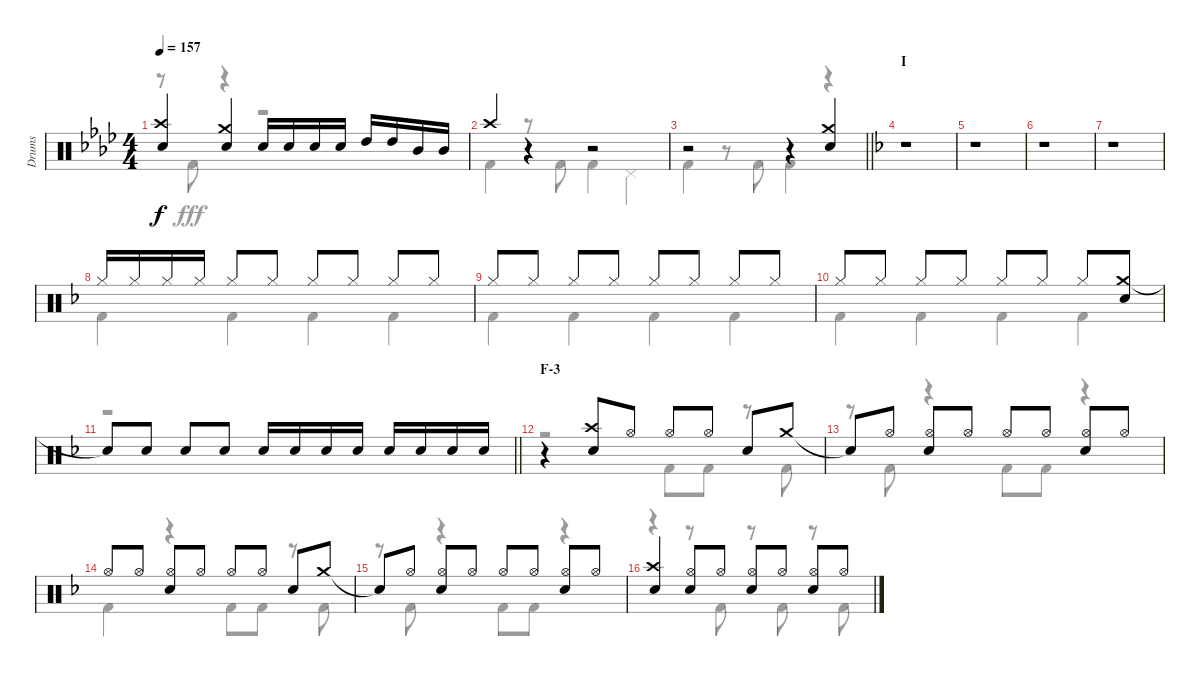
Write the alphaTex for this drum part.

\track ("Drums" "Drums") {instrument percussion}
\staff {score}
\articulation defaults
\voice
\ts (4 4)
\tempo 157
\clef neutral
\ks ab
("Crash high (hit)" "Snare (hit) 2").4{dy f} ("Crash medium (hit)" "Snare (hit) 2").4 "Snare (hit) 2".16 "Snare (hit) 2".16 "Snare (hit) 2".16 "Snare (hit) 2".16 "High Tom (hit)".16 "High Tom (hit)".16 "Mid Tom (hit)".16 "Mid Tom (hit)".16 |
"Crash high (hit)".4 r.4 r.2 |
\barLineRight lightlight
r.2 r.4 ("Crash medium (hit)" "Snare (hit) 2").4 |
\section ("" "I")
\ks f
r.1 |
r.1 |
r.1 |
r.1 |
"Hi-Hat (closed)".16 "Hi-Hat (closed)".16 "Hi-Hat (closed)".16 "Hi-Hat (closed)".16 "Hi-Hat (closed)".8 "Hi-Hat (closed)".8 "Hi-Hat (closed)".8 "Hi-Hat (closed)".8 "Hi-Hat (closed)".8 "Hi-Hat (closed)".8 |
"Hi-Hat (closed)".8 "Hi-Hat (closed)".8 "Hi-Hat (closed)".8 "Hi-Hat (closed)".8 "Hi-Hat (closed)".8 "Hi-Hat (closed)".8 "Hi-Hat (closed)".8 "Hi-Hat (closed)".8 |
"Hi-Hat (closed)".8 "Hi-Hat (closed)".8 "Hi-Hat (closed)".8 "Hi-Hat (closed)".8 "Hi-Hat (closed)".8 "Hi-Hat (closed)".8 "Hi-Hat (closed)".8 ("Crash medium (hit)" "Snare (hit) 2").8 |
\barLineRight lightlight "Snare (hit)"{t}.8 "Snare (hit) 2".8 "Snare (hit) 2".8 "Snare (hit) 2".8 "Snare (hit) 2".16 "Snare (hit) 2".16 "Snare (hit) 2".16 "Snare (hit) 2".16 "Snare (hit) 2".16 "Snare (hit) 2".16 "Snare (hit) 2".16 "Snare (hit) 2".16
|
\section ("" "F-3")
r.4 ("Crash high (hit)" "Snare (hit) 2").8 "Hi-Hat (open)".8 "Hi-Hat (open)".8 "Hi-Hat (open)".8 "Snare (hit) 2".8 "Crash medium (hit)".8 |
"Snare (hit)"{t}.8 "Hi-Hat (open)".8 ("Hi-Hat (open)" "Snare (hit) 2").8 "Hi-Hat (open)".8 "Hi-Hat (open)".8 "Hi-Hat (open)".8 ("Hi-Hat (open)" "Snare (hit) 2").8 "Hi-Hat (open)".8 |
"Hi-Hat (open)".8 "Hi-Hat (open)".8 ("Hi-Hat (open)" "Snare (hit) 2").8 "Hi-Hat (open)".8 "Hi-Hat (open)".8 "Hi-Hat (open)".8 "Snare (hit) 2".8 "Crash medium (hit)".8 |
"Snare (hit)"{t}.8 "Hi-Hat (open)".8 ("Hi-Hat (open)" "Snare (hit) 2").8 "Hi-Hat (open)".8 "Hi-Hat (open)".8 "Hi-Hat (open)".8 ("Hi-Hat (open)" "Snare (hit) 2").8 "Hi-Hat (open)".8 |
("Crash high (hit)" "Snare (hit) 2").4 ("Hi-Hat (open)" "Snare (hit) 2").8 "Hi-Hat (open)".8 ("Hi-Hat (open)" "Snare (hit) 2").8 "Hi-Hat (open)".8 ("Hi-Hat (open)" "Snare (hit) 2").8 "Hi-Hat (open)".8
\voice
\clef neutral
\ottava regular
\simile none
\ks ab
r.8{dy fff} "Kick (hit) 2".8 r.4 r.2 |
"Kick (hit) 2".4 r.8 "Kick (hit) 2".8 "Kick (hit) 2".4 "Pedal Hi-Hat (hit)".4 |
\barLineRight lightlight "Kick (hit) 2".4
r.8 "Kick (hit) 2".8 "Kick (hit) 2".4 r.4 |
\ks f
r.1 |
r.1 |
r.1 |
r.1 |
"Kick (hit) 2".4 "Kick (hit) 2".4 "Kick (hit) 2".4 "Kick (hit) 2".4 |
"Kick (hit) 2".4 "Kick (hit) 2".4 "Kick (hit) 2".4 "Kick (hit) 2".4 |
"Kick (hit) 2".4 "Kick (hit) 2".4 "Kick (hit) 2".4 "Kick (hit) 2".4 |
\barLineRight lightlight
r.1 |
r.2 "Kick (hit) 2".8 "Kick (hit) 2".8 r.8 "Kick (hit) 2".8 |
r.8 "Kick (hit) 2".8 r.4 "Kick (hit) 2".8 "Kick (hit) 2".8 r.4 |
"Kick (hit) 2".4 r.4 "Kick (hit) 2".8 "Kick (hit) 2".8 r.8 "Kick (hit) 2".8 |
r.8 "Kick (hit) 2".8 r.4 "Kick (hit) 2".8 "Kick (hit) 2".8 r.4 |
r.4 r.8 "Kick (hit) 2".8 r.8 "Kick (hit) 2".8 r.8 "Kick (hit) 2".8
